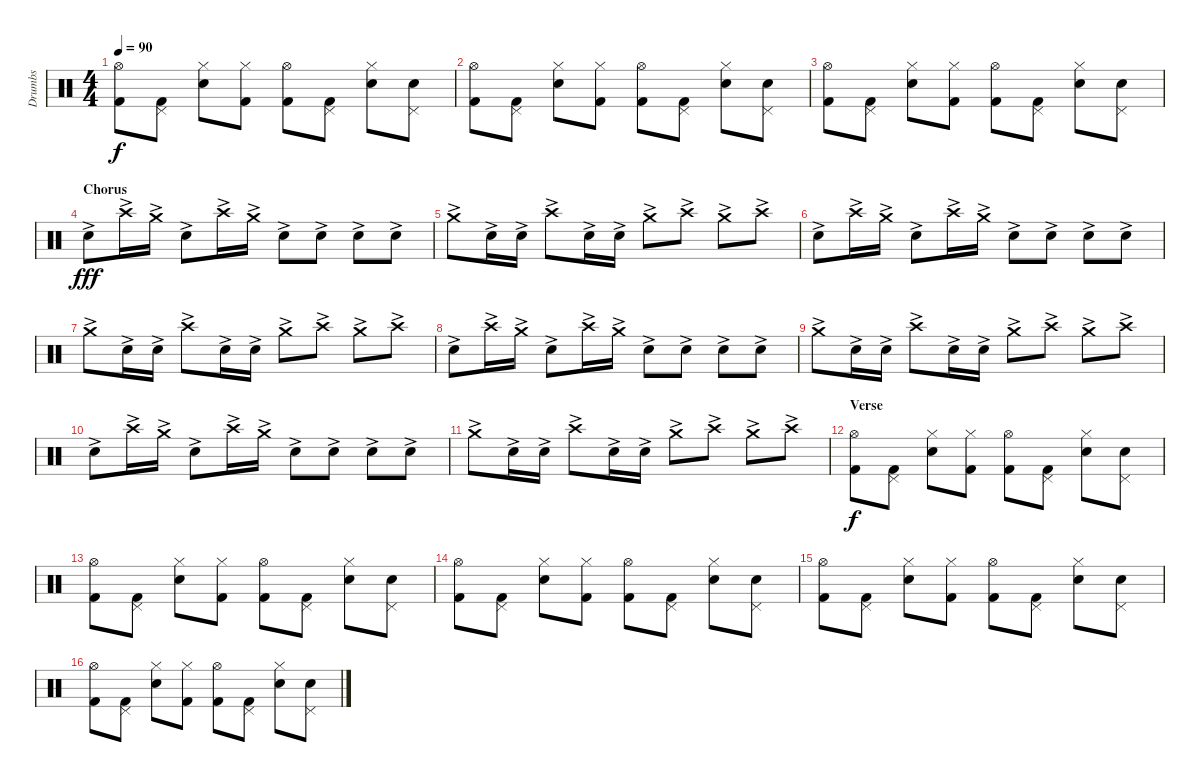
\track ("Drumbs" "Drumbs") {instrument percussion}
\staff {score}
\articulation defaults
\ts (4 4)
\tempo 90
\clef neutral
\ks c
("Hi-Hat (open)" "Kick (hit) 2").8{dy f} ("Pedal Hi-Hat (hit)" "Kick (hit) 2").8 ("Hi-Hat (closed)" "Snare (hit) 2").8 ("Hi-Hat (closed)" "Kick (hit) 2").8 ("Hi-Hat (open)" "Kick (hit) 2").8 ("Pedal Hi-Hat (hit)" "Kick (hit) 2").8 ("Hi-Hat (closed)" "Snare (hit) 2").8 ("Pedal Hi-Hat (hit)" "Snare (hit) 2").8 |
("Hi-Hat (open)" "Kick (hit) 2").8 ("Pedal Hi-Hat (hit)" "Kick (hit) 2").8 ("Hi-Hat (closed)" "Snare (hit) 2").8 ("Hi-Hat (closed)" "Kick (hit) 2").8 ("Hi-Hat (open)" "Kick (hit) 2").8 ("Pedal Hi-Hat (hit)" "Kick (hit) 2").8 ("Hi-Hat (closed)" "Snare (hit) 2").8 ("Pedal Hi-Hat (hit)" "Snare (hit) 2").8 |
("Hi-Hat (open)" "Kick (hit) 2").8 ("Pedal Hi-Hat (hit)" "Kick (hit) 2").8 ("Hi-Hat (closed)" "Snare (hit) 2").8 ("Hi-Hat (closed)" "Kick (hit) 2").8 ("Hi-Hat (open)" "Kick (hit) 2").8 ("Pedal Hi-Hat (hit)" "Kick (hit) 2").8 ("Hi-Hat (closed)" "Snare (hit) 2").8 ("Pedal Hi-Hat (hit)" "Snare (hit) 2").8 |
\section ("" "Chorus")
"Electric Snare (hit)"{ac}.8{dy fff} "Crash high (hit)"{ac}.16 "Crash medium (hit)"{ac}.16 "Electric Snare (hit)"{ac}.8 "Crash high (hit)"{ac}.16 "Crash medium (hit)"{ac}.16 "Electric Snare (hit)"{ac}.8 "Electric Snare (hit)"{ac}.8 "Electric Snare (hit)"{ac}.8 "Electric Snare (hit)"{ac}.8 |
"Crash medium (hit)"{ac}.8 "Electric Snare (hit)"{ac}.16 "Electric Snare (hit)"{ac}.16 "Crash high (hit)"{ac}.8 "Electric Snare (hit)"{ac}.16 "Electric Snare (hit)"{ac}.16 "Crash medium (hit)"{ac}.8 "Crash high (hit)"{ac}.8 "Crash medium (hit)"{ac}.8 "Crash high (hit)"{ac}.8 |
"Electric Snare (hit)"{ac}.8 "Crash high (hit)"{ac}.16 "Crash medium (hit)"{ac}.16 "Electric Snare (hit)"{ac}.8 "Crash high (hit)"{ac}.16 "Crash medium (hit)"{ac}.16 "Electric Snare (hit)"{ac}.8 "Electric Snare (hit)"{ac}.8 "Electric Snare (hit)"{ac}.8 "Electric Snare (hit)"{ac}.8 |
"Crash medium (hit)"{ac}.8 "Electric Snare (hit)"{ac}.16 "Electric Snare (hit)"{ac}.16 "Crash high (hit)"{ac}.8 "Electric Snare (hit)"{ac}.16 "Electric Snare (hit)"{ac}.16 "Crash medium (hit)"{ac}.8 "Crash high (hit)"{ac}.8 "Crash medium (hit)"{ac}.8 "Crash high (hit)"{ac}.8 |
"Electric Snare (hit)"{ac}.8 "Crash high (hit)"{ac}.16 "Crash medium (hit)"{ac}.16 "Electric Snare (hit)"{ac}.8 "Crash high (hit)"{ac}.16 "Crash medium (hit)"{ac}.16 "Electric Snare (hit)"{ac}.8 "Electric Snare (hit)"{ac}.8 "Electric Snare (hit)"{ac}.8 "Electric Snare (hit)"{ac}.8 |
"Crash medium (hit)"{ac}.8 "Electric Snare (hit)"{ac}.16 "Electric Snare (hit)"{ac}.16 "Crash high (hit)"{ac}.8 "Electric Snare (hit)"{ac}.16 "Electric Snare (hit)"{ac}.16 "Crash medium (hit)"{ac}.8 "Crash high (hit)"{ac}.8 "Crash medium (hit)"{ac}.8 "Crash high (hit)"{ac}.8 |
"Electric Snare (hit)"{ac}.8 "Crash high (hit)"{ac}.16 "Crash medium (hit)"{ac}.16 "Electric Snare (hit)"{ac}.8 "Crash high (hit)"{ac}.16 "Crash medium (hit)"{ac}.16 "Electric Snare (hit)"{ac}.8 "Electric Snare (hit)"{ac}.8 "Electric Snare (hit)"{ac}.8 "Electric Snare (hit)"{ac}.8 |
"Crash medium (hit)"{ac}.8 "Electric Snare (hit)"{ac}.16 "Electric Snare (hit)"{ac}.16 "Crash high (hit)"{ac}.8 "Electric Snare (hit)"{ac}.16 "Electric Snare (hit)"{ac}.16 "Crash medium (hit)"{ac}.8 "Crash high (hit)"{ac}.8 "Crash medium (hit)"{ac}.8 "Crash high (hit)"{ac}.8 |
\section ("" "Verse")
("Hi-Hat (open)" "Kick (hit) 2").8{dy f} ("Pedal Hi-Hat (hit)" "Kick (hit) 2").8 ("Hi-Hat (closed)" "Snare (hit) 2").8 ("Hi-Hat (closed)" "Kick (hit) 2").8 ("Hi-Hat (open)" "Kick (hit) 2").8 ("Pedal Hi-Hat (hit)" "Kick (hit) 2").8 ("Hi-Hat (closed)" "Snare (hit) 2").8 ("Pedal Hi-Hat (hit)" "Snare (hit) 2").8 |
("Hi-Hat (open)" "Kick (hit) 2").8 ("Pedal Hi-Hat (hit)" "Kick (hit) 2").8 ("Hi-Hat (closed)" "Snare (hit) 2").8 ("Hi-Hat (closed)" "Kick (hit) 2").8 ("Hi-Hat (open)" "Kick (hit) 2").8 ("Pedal Hi-Hat (hit)" "Kick (hit) 2").8 ("Hi-Hat (closed)" "Snare (hit) 2").8 ("Pedal Hi-Hat (hit)" "Snare (hit) 2").8 |
("Hi-Hat (open)" "Kick (hit) 2").8 ("Pedal Hi-Hat (hit)" "Kick (hit) 2").8 ("Hi-Hat (closed)" "Snare (hit) 2").8 ("Hi-Hat (closed)" "Kick (hit) 2").8 ("Hi-Hat (open)" "Kick (hit) 2").8 ("Pedal Hi-Hat (hit)" "Kick (hit) 2").8 ("Hi-Hat (closed)" "Snare (hit) 2").8 ("Pedal Hi-Hat (hit)" "Snare (hit) 2").8 |
("Hi-Hat (open)" "Kick (hit) 2").8 ("Pedal Hi-Hat (hit)" "Kick (hit) 2").8 ("Hi-Hat (closed)" "Snare (hit) 2").8 ("Hi-Hat (closed)" "Kick (hit) 2").8 ("Hi-Hat (open)" "Kick (hit) 2").8 ("Pedal Hi-Hat (hit)" "Kick (hit) 2").8 ("Hi-Hat (closed)" "Snare (hit) 2").8 ("Pedal Hi-Hat (hit)" "Snare (hit) 2").8 |
("Hi-Hat (open)" "Kick (hit) 2").8 ("Pedal Hi-Hat (hit)" "Kick (hit) 2").8 ("Hi-Hat (closed)" "Snare (hit) 2").8 ("Hi-Hat (closed)" "Kick (hit) 2").8 ("Hi-Hat (open)" "Kick (hit) 2").8 ("Pedal Hi-Hat (hit)" "Kick (hit) 2").8 ("Hi-Hat (closed)" "Snare (hit) 2").8 ("Pedal Hi-Hat (hit)" "Snare (hit) 2").8
